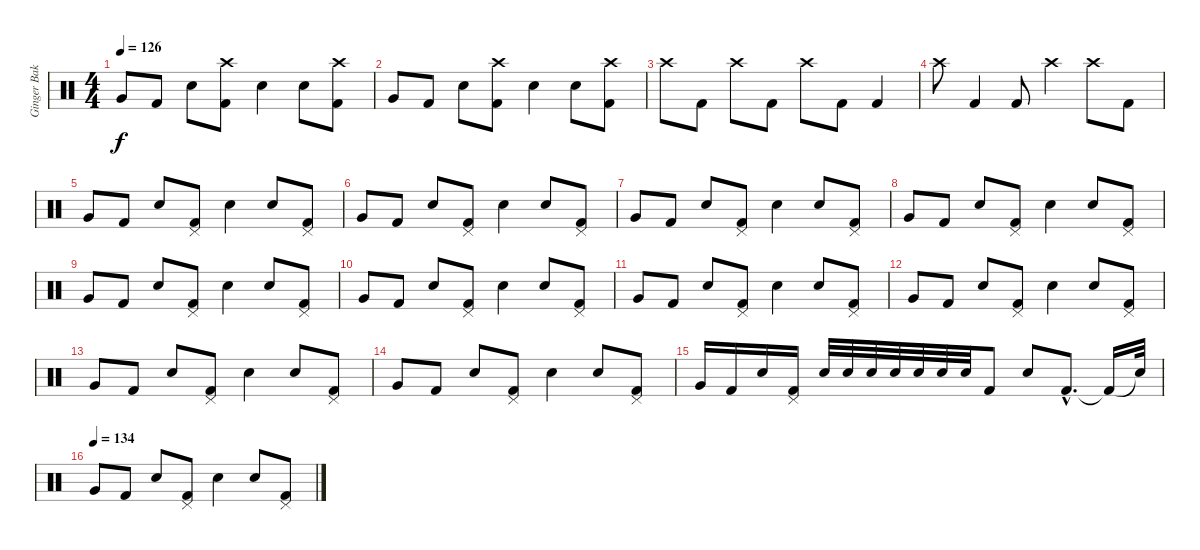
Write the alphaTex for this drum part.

\track ("Ginger Baker" "Ginger Bak") {instrument percussion}
\staff {score}
\articulation defaults
\ts (4 4)
\tempo 126
\clef neutral
\ks c "Very Low Tom (hit)".8{dy f} "Kick (hit) 2".8 "Snare (hit) 2".8
("Crash high (hit)" "Kick (hit) 2").8 "Snare (hit) 2".4 "Snare (hit) 2".8 ("Crash high (hit)" "Kick (hit) 2").8 |
"Very Low Tom (hit)".8 "Kick (hit) 2".8 "Snare (hit) 2".8 ("Crash high (hit)" "Kick (hit) 2").8 "Snare (hit) 2".4 "Snare (hit) 2".8 ("Crash high (hit)" "Kick (hit) 2").8 |
"Crash high (hit)".8 "Kick (hit) 2".8 "Crash high (hit)".8 "Kick (hit) 2".8 "Crash high (hit)".8 "Kick (hit) 2".8 "Kick (hit) 2".4 |
"Crash high (hit)".8 "Kick (hit) 2".4 "Kick (hit) 2".8 "Crash high (hit)".4 "Crash high (hit)".8 "Kick (hit) 2".8 |
"Very Low Tom (hit)".8 "Kick (hit) 2".8 "Snare (hit) 2".8 ("Pedal Hi-Hat (hit)" "Kick (hit) 2").8 "Snare (hit) 2".4 "Snare (hit) 2".8 ("Pedal Hi-Hat (hit)" "Kick (hit) 2").8 |
"Very Low Tom (hit)".8 "Kick (hit) 2".8 "Snare (hit) 2".8 ("Pedal Hi-Hat (hit)" "Kick (hit) 2").8 "Snare (hit) 2".4 "Snare (hit) 2".8 ("Pedal Hi-Hat (hit)" "Kick (hit) 2").8 |
"Very Low Tom (hit)".8 "Kick (hit) 2".8 "Snare (hit) 2".8 ("Pedal Hi-Hat (hit)" "Kick (hit) 2").8 "Snare (hit) 2".4 "Snare (hit) 2".8 ("Pedal Hi-Hat (hit)" "Kick (hit) 2").8 |
"Very Low Tom (hit)".8 "Kick (hit) 2".8 "Snare (hit) 2".8 ("Pedal Hi-Hat (hit)" "Kick (hit) 2").8 "Snare (hit) 2".4 "Snare (hit) 2".8 ("Pedal Hi-Hat (hit)" "Kick (hit) 2").8 |
"Very Low Tom (hit)".8 "Kick (hit) 2".8 "Snare (hit) 2".8 ("Pedal Hi-Hat (hit)" "Kick (hit) 2").8 "Snare (hit) 2".4 "Snare (hit) 2".8 ("Pedal Hi-Hat (hit)" "Kick (hit) 2").8 |
"Very Low Tom (hit)".8 "Kick (hit) 2".8 "Snare (hit) 2".8 ("Pedal Hi-Hat (hit)" "Kick (hit) 2").8 "Snare (hit) 2".4 "Snare (hit) 2".8 ("Pedal Hi-Hat (hit)" "Kick (hit) 2").8 |
"Very Low Tom (hit)".8 "Kick (hit) 2".8 "Snare (hit) 2".8 ("Pedal Hi-Hat (hit)" "Kick (hit) 2").8 "Snare (hit) 2".4 "Snare (hit) 2".8 ("Pedal Hi-Hat (hit)" "Kick (hit) 2").8 |
"Very Low Tom (hit)".8 "Kick (hit) 2".8 "Snare (hit) 2".8 ("Pedal Hi-Hat (hit)" "Kick (hit) 2").8 "Snare (hit) 2".4 "Snare (hit) 2".8 ("Pedal Hi-Hat (hit)" "Kick (hit) 2").8 |
"Very Low Tom (hit)".8 "Kick (hit) 2".8 "Snare (hit) 2".8 ("Pedal Hi-Hat (hit)" "Kick (hit) 2").8 "Snare (hit) 2".4 "Snare (hit) 2".8 ("Pedal Hi-Hat (hit)" "Kick (hit) 2").8 |
"Very Low Tom (hit)".8 "Kick (hit) 2".8 "Snare (hit) 2".8 ("Pedal Hi-Hat (hit)" "Kick (hit) 2").8 "Snare (hit) 2".4 "Snare (hit) 2".8 ("Pedal Hi-Hat (hit)" "Kick (hit) 2").8 |
"Very Low Tom (hit)".16 "Kick (hit) 2".16 "Snare (hit) 2".16 ("Pedal Hi-Hat (hit)" "Kick (hit) 2").16 "Snare (hit) 2".32 "Snare (hit) 2".32 "Snare (hit) 2".32 "Snare (hit) 2".32 "Snare (hit) 2".32 "Snare (hit) 2".32 "Snare (hit) 2".32 "Kick (hit) 2".8 "Snare (hit) 2".8 "Kick (hit) 2"{hac}.8{d} "Kick (hit) 2"{t}.16 "Snare (hit)"{t}.32 |
\tempo (134)
"Very Low Tom (hit)".8 "Kick (hit) 2".8 "Snare (hit) 2".8 ("Pedal Hi-Hat (hit)" "Kick (hit) 2").8 "Snare (hit) 2".4 "Snare (hit) 2".8 ("Pedal Hi-Hat (hit)" "Kick (hit) 2").8
